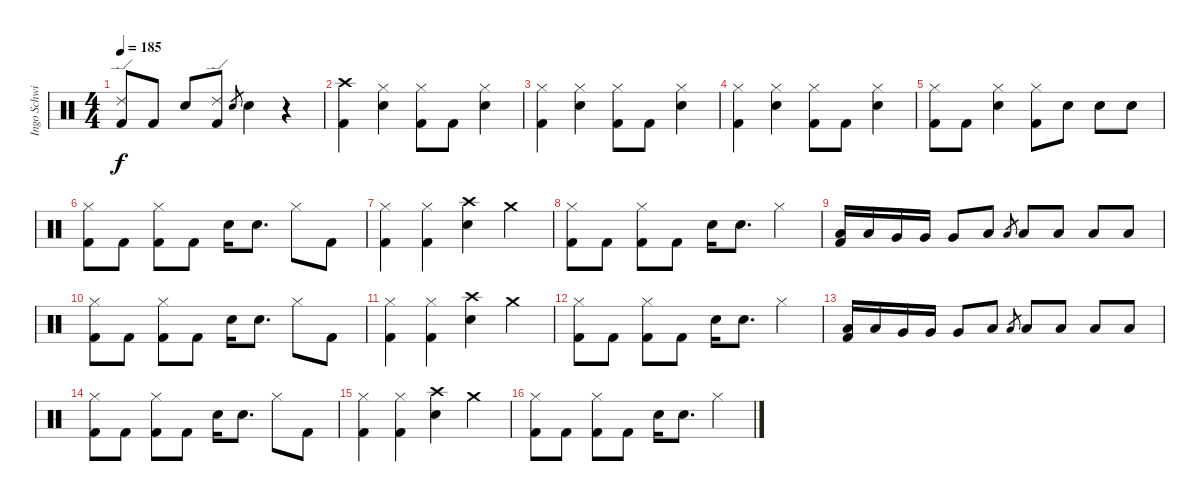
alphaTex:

\track ("Ingo Schwischtenberg" "Ingo Schwi") {instrument percussion}
\staff {score}
\articulation defaults
\ts (4 4)
\tempo 185
\clef neutral
\ks c
("Ride (edge) 2" "Kick (hit) 2").8{dy f} "Kick (hit) 2".8 "Electric Snare (hit)".8 ("Ride (edge) 2" "Kick (hit) 2").8 "Electric Snare (hit)".8{gr} "Electric Snare (hit)".4 r.4 |
("Crash high (hit)" "Kick (hit) 2").4 ("Hi-Hat (closed)" "Electric Snare (hit)").4 ("Hi-Hat (closed)" "Kick (hit) 2").8 "Kick (hit) 2".8 ("Hi-Hat (closed)" "Electric Snare (hit)").4 |
("Hi-Hat (closed)" "Kick (hit) 2").4 ("Hi-Hat (closed)" "Electric Snare (hit)").4 ("Hi-Hat (closed)" "Kick (hit) 2").8 "Kick (hit) 2".8 ("Hi-Hat (closed)" "Electric Snare (hit)").4 |
("Hi-Hat (closed)" "Kick (hit) 2").4 ("Hi-Hat (closed)" "Electric Snare (hit)").4 ("Hi-Hat (closed)" "Kick (hit) 2").8 "Kick (hit) 2".8 ("Hi-Hat (closed)" "Electric Snare (hit)").4 |
("Hi-Hat (closed)" "Kick (hit) 2").8 "Kick (hit) 2".8 ("Hi-Hat (closed)" "Electric Snare (hit)").4 ("Hi-Hat (closed)" "Kick (hit) 2").8 "Electric Snare (hit)".8 "Electric Snare (hit)".8 "Electric Snare (hit)".8 |
("Hi-Hat (closed)" "Kick (hit) 2").8 "Kick (hit) 2".8 ("Hi-Hat (closed)" "Kick (hit) 2").8 "Kick (hit) 2".8 "Electric Snare (hit)".16 "Electric Snare (hit)".8{d} "Hi-Hat (closed)".8 "Kick (hit) 2".8 |
("Hi-Hat (closed)" "Kick (hit) 2").4 ("Hi-Hat (closed)" "Kick (hit) 2").4 ("Crash high (hit)" "Electric Snare (hit)").4 "Crash medium (hit)".4 |
("Hi-Hat (closed)" "Kick (hit) 2").8 "Kick (hit) 2".8 ("Hi-Hat (closed)" "Kick (hit) 2").8 "Kick (hit) 2".8 "Electric Snare (hit)".16 "Electric Snare (hit)".8{d} "Hi-Hat (closed)".4 |
("Low Tom (hit)" "Kick (hit) 2").16 "Low Tom (hit)".16 "Very Low Tom (hit)".16 "Very Low Tom (hit)".16 "Very Low Tom (hit)".8 "Low Tom (hit)".8 "Low Floor Tom (hit)".8{gr} "Low Floor Tom (hit)".8 "Low Floor Tom (hit)".8 "Low Floor Tom (hit)".8 "Low Floor Tom (hit)".8 |
("Hi-Hat (closed)" "Kick (hit) 2").8 "Kick (hit) 2".8 ("Hi-Hat (closed)" "Kick (hit) 2").8 "Kick (hit) 2".8 "Electric Snare (hit)".16 "Electric Snare (hit)".8{d} "Hi-Hat (closed)".8 "Kick (hit) 2".8 |
("Hi-Hat (closed)" "Kick (hit) 2").4 ("Hi-Hat (closed)" "Kick (hit) 2").4 ("Crash high (hit)" "Electric Snare (hit)").4 "Crash medium (hit)".4 |
("Hi-Hat (closed)" "Kick (hit) 2").8 "Kick (hit) 2".8 ("Hi-Hat (closed)" "Kick (hit) 2").8 "Kick (hit) 2".8 "Electric Snare (hit)".16 "Electric Snare (hit)".8{d} "Hi-Hat (closed)".4 |
("Low Tom (hit)" "Kick (hit) 2").16 "Low Tom (hit)".16 "Very Low Tom (hit)".16 "Very Low Tom (hit)".16 "Very Low Tom (hit)".8 "Low Tom (hit)".8 "Low Floor Tom (hit)".8{gr} "Low Floor Tom (hit)".8 "Low Floor Tom (hit)".8 "Low Floor Tom (hit)".8 "Low Floor Tom (hit)".8 |
("Hi-Hat (closed)" "Kick (hit) 2").8 "Kick (hit) 2".8 ("Hi-Hat (closed)" "Kick (hit) 2").8 "Kick (hit) 2".8 "Electric Snare (hit)".16 "Electric Snare (hit)".8{d} "Hi-Hat (closed)".8 "Kick (hit) 2".8 |
("Hi-Hat (closed)" "Kick (hit) 2").4 ("Hi-Hat (closed)" "Kick (hit) 2").4 ("Crash high (hit)" "Electric Snare (hit)").4 "Crash medium (hit)".4 |
("Hi-Hat (closed)" "Kick (hit) 2").8 "Kick (hit) 2".8 ("Hi-Hat (closed)" "Kick (hit) 2").8 "Kick (hit) 2".8 "Electric Snare (hit)".16 "Electric Snare (hit)".8{d} "Hi-Hat (closed)".4
